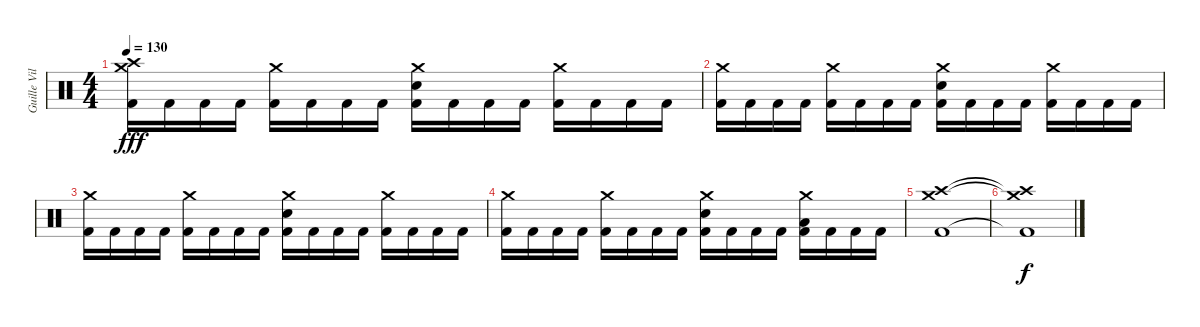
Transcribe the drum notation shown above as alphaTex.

\track ("Guille Vila" "Guille Vil") {instrument percussion}
\staff {score}
\articulation defaults
\ts (4 4)
\tempo 130
\clef neutral
\ks c
("Crash high (hit)" "Crash medium (hit)" "Kick (hit) 2").16{dy fff} "Kick (hit) 2".16 "Kick (hit) 2".16 "Kick (hit) 2".16 ("Crash medium (hit)" "Kick (hit) 2").16 "Kick (hit) 2".16 "Kick (hit) 2".16 "Kick (hit) 2".16 ("Crash medium (hit)" "Snare (hit) 2" "Kick (hit) 2").16 "Kick (hit) 2".16 "Kick (hit) 2".16 "Kick (hit) 2".16 ("Crash medium (hit)" "Kick (hit) 2").16 "Kick (hit) 2".16 "Kick (hit) 2".16 "Kick (hit) 2".16 |
("Crash medium (hit)" "Kick (hit) 2").16 "Kick (hit) 2".16 "Kick (hit) 2".16 "Kick (hit) 2".16 ("Crash medium (hit)" "Kick (hit) 2").16 "Kick (hit) 2".16 "Kick (hit) 2".16 "Kick (hit) 2".16 ("Crash medium (hit)" "Snare (hit) 2" "Kick (hit) 2").16 "Kick (hit) 2".16 "Kick (hit) 2".16 "Kick (hit) 2".16 ("Crash medium (hit)" "Kick (hit) 2").16 "Kick (hit) 2".16 "Kick (hit) 2".16 "Kick (hit) 2".16 |
("Crash medium (hit)" "Kick (hit) 2").16 "Kick (hit) 2".16 "Kick (hit) 2".16 "Kick (hit) 2".16 ("Crash medium (hit)" "Kick (hit) 2").16 "Kick (hit) 2".16 "Kick (hit) 2".16 "Kick (hit) 2".16 ("Crash medium (hit)" "Snare (hit) 2" "Kick (hit) 2").16 "Kick (hit) 2".16 "Kick (hit) 2".16 "Kick (hit) 2".16 ("Crash medium (hit)" "Kick (hit) 2").16 "Kick (hit) 2".16 "Kick (hit) 2".16 "Kick (hit) 2".16 |
("Crash medium (hit)" "Kick (hit) 2").16 "Kick (hit) 2".16 "Kick (hit) 2".16 "Kick (hit) 2".16 ("Crash medium (hit)" "Kick (hit) 2").16 "Kick (hit) 2".16 "Kick (hit) 2".16 "Kick (hit) 2".16 ("Crash medium (hit)" "Snare (hit) 2" "Kick (hit) 2").16 "Kick (hit) 2".16 "Kick (hit) 2".16 "Kick (hit) 2".16 ("Crash medium (hit)" "Low Tom (hit)" "Kick (hit) 2").16 "Kick (hit) 2".16 "Kick (hit) 2".16 "Kick (hit) 2".16 |
("Crash medium (hit)" "Crash high (hit)" "Kick (hit) 2").1 |
("Crash medium (hit)"{t} "Crash high (hit)"{t} "Kick (hit) 2"{t}).1{dy f}
